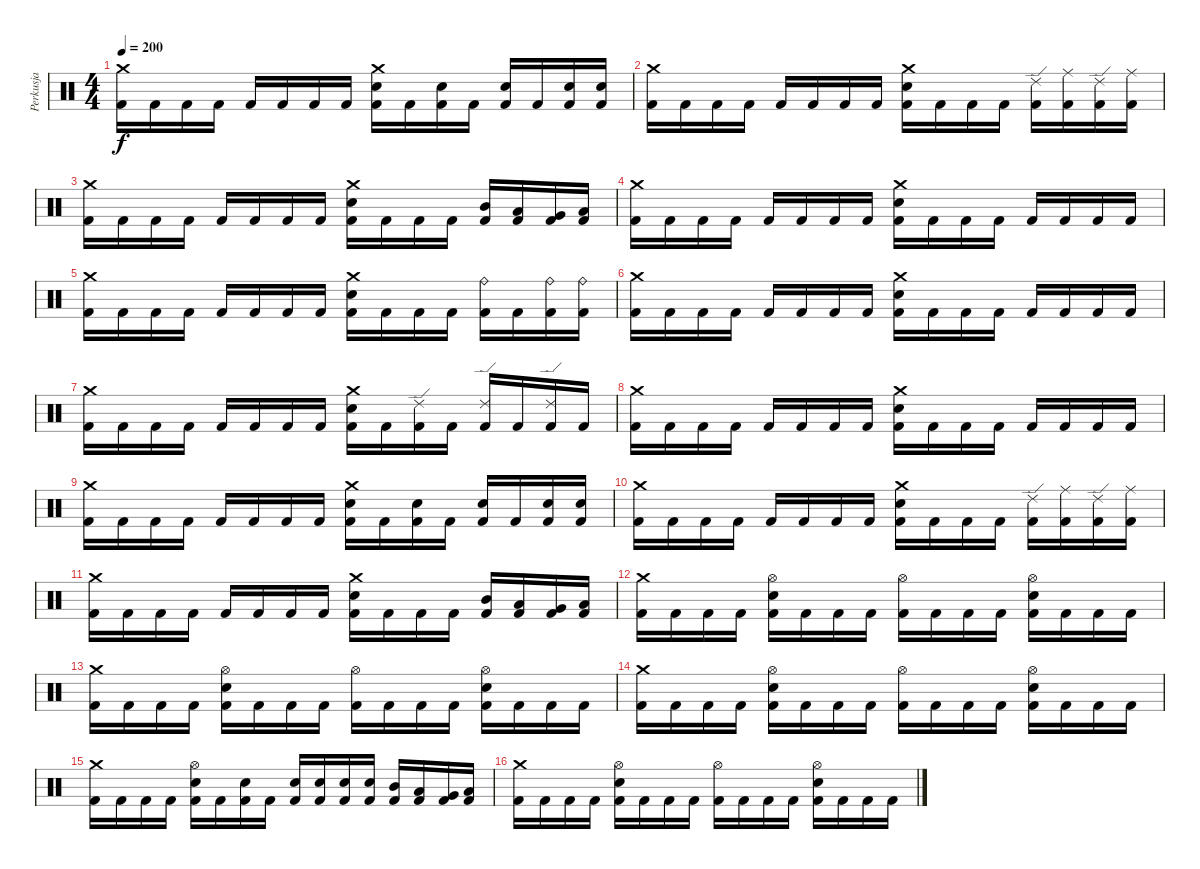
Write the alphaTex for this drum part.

\track ("Perkusja" "Perkusja") {instrument percussion}
\staff {score}
\articulation defaults
\ts (4 4)
\tempo 200
\clef neutral
\ks c
("Crash medium (hit)" "Kick (hit) 2").16{dy f} "Kick (hit) 2".16 "Kick (hit) 2".16 "Kick (hit) 2".16 "Kick (hit) 2".16 "Kick (hit) 2".16 "Kick (hit) 2".16 "Kick (hit) 2".16 ("Crash medium (hit)" "Electric Snare (hit)" "Kick (hit) 2").16 "Kick (hit) 2".16 ("Electric Snare (hit)" "Kick (hit) 2").16 "Kick (hit) 2".16 ("Electric Snare (hit)" "Kick (hit) 2").16 "Kick (hit) 2".16 ("Electric Snare (hit)" "Kick (hit) 2").16 ("Electric Snare (hit)" "Kick (hit) 2").16 |
("Crash medium (hit)" "Kick (hit) 2").16 "Kick (hit) 2".16 "Kick (hit) 2".16 "Kick (hit) 2".16 "Kick (hit) 2".16 "Kick (hit) 2".16 "Kick (hit) 2".16 "Kick (hit) 2".16 ("Crash medium (hit)" "Electric Snare (hit)" "Kick (hit) 2").16 "Kick (hit) 2".16 "Kick (hit) 2".16 "Kick (hit) 2".16 ("Ride (edge) 2" "Kick (hit) 2").16 ("Ride (middle)" "Kick (hit) 2").16 ("Ride (edge) 2" "Kick (hit) 2").16 ("Ride (middle)" "Kick (hit) 2").16 |
("Crash medium (hit)" "Kick (hit) 2").16 "Kick (hit) 2".16 "Kick (hit) 2".16 "Kick (hit) 2".16 "Kick (hit) 2".16 "Kick (hit) 2".16 "Kick (hit) 2".16 "Kick (hit) 2".16 ("Crash medium (hit)" "Electric Snare (hit)" "Kick (hit) 2").16 "Kick (hit) 2".16 "Kick (hit) 2".16 "Kick (hit) 2".16 ("Mid Tom (hit)" "Kick (hit) 2").16 ("Low Tom (hit)" "Kick (hit) 2").16 ("Very Low Tom (hit)" "Kick (hit) 2").16 ("Low Floor Tom (hit)" "Kick (hit) 2").16 |
("Crash medium (hit)" "Kick (hit) 2").16 "Kick (hit) 2".16 "Kick (hit) 2".16 "Kick (hit) 2".16 "Kick (hit) 2".16 "Kick (hit) 2".16 "Kick (hit) 2".16 "Kick (hit) 2".16 ("Crash medium (hit)" "Electric Snare (hit)" "Kick (hit) 2").16 "Kick (hit) 2".16 "Kick (hit) 2".16 "Kick (hit) 2".16 "Kick (hit) 2".16 "Kick (hit) 2".16 "Kick (hit) 2".16 "Kick (hit) 2".16 |
("Crash medium (hit)" "Kick (hit) 2").16 "Kick (hit) 2".16 "Kick (hit) 2".16 "Kick (hit) 2".16 "Kick (hit) 2".16 "Kick (hit) 2".16 "Kick (hit) 2".16 "Kick (hit) 2".16 ("Crash medium (hit)" "Electric Snare (hit)" "Kick (hit) 2").16 "Kick (hit) 2".16 "Kick (hit) 2".16 "Kick (hit) 2".16 ("Ride (bell)" "Kick (hit) 2").16 "Kick (hit) 2".16 ("Ride (bell)" "Kick (hit) 2").16 ("Ride (bell)" "Kick (hit) 2").16 |
("Crash medium (hit)" "Kick (hit) 2").16 "Kick (hit) 2".16 "Kick (hit) 2".16 "Kick (hit) 2".16 "Kick (hit) 2".16 "Kick (hit) 2".16 "Kick (hit) 2".16 "Kick (hit) 2".16 ("Crash medium (hit)" "Electric Snare (hit)" "Kick (hit) 2").16 "Kick (hit) 2".16 "Kick (hit) 2".16 "Kick (hit) 2".16 "Kick (hit) 2".16 "Kick (hit) 2".16 "Kick (hit) 2".16 "Kick (hit) 2".16 |
("Crash medium (hit)" "Kick (hit) 2").16 "Kick (hit) 2".16 "Kick (hit) 2".16 "Kick (hit) 2".16 "Kick (hit) 2".16 "Kick (hit) 2".16 "Kick (hit) 2".16 "Kick (hit) 2".16 ("Crash medium (hit)" "Electric Snare (hit)" "Kick (hit) 2").16 "Kick (hit) 2".16 ("Ride (edge) 2" "Kick (hit) 2").16 "Kick (hit) 2".16 ("Ride (edge) 2" "Kick (hit) 2").16 "Kick (hit) 2".16 ("Ride (edge) 2" "Kick (hit) 2").16 "Kick (hit) 2".16 |
("Crash medium (hit)" "Kick (hit) 2").16 "Kick (hit) 2".16 "Kick (hit) 2".16 "Kick (hit) 2".16 "Kick (hit) 2".16 "Kick (hit) 2".16 "Kick (hit) 2".16 "Kick (hit) 2".16 ("Crash medium (hit)" "Electric Snare (hit)" "Kick (hit) 2").16 "Kick (hit) 2".16 "Kick (hit) 2".16 "Kick (hit) 2".16 "Kick (hit) 2".16 "Kick (hit) 2".16 "Kick (hit) 2".16 "Kick (hit) 2".16 |
("Crash medium (hit)" "Kick (hit) 2").16 "Kick (hit) 2".16 "Kick (hit) 2".16 "Kick (hit) 2".16 "Kick (hit) 2".16 "Kick (hit) 2".16 "Kick (hit) 2".16 "Kick (hit) 2".16 ("Crash medium (hit)" "Electric Snare (hit)" "Kick (hit) 2").16 "Kick (hit) 2".16 ("Electric Snare (hit)" "Kick (hit) 2").16 "Kick (hit) 2".16 ("Electric Snare (hit)" "Kick (hit) 2").16 "Kick (hit) 2".16 ("Electric Snare (hit)" "Kick (hit) 2").16 ("Electric Snare (hit)" "Kick (hit) 2").16 |
("Crash medium (hit)" "Kick (hit) 2").16 "Kick (hit) 2".16 "Kick (hit) 2".16 "Kick (hit) 2".16 "Kick (hit) 2".16 "Kick (hit) 2".16 "Kick (hit) 2".16 "Kick (hit) 2".16 ("Crash medium (hit)" "Electric Snare (hit)" "Kick (hit) 2").16 "Kick (hit) 2".16 "Kick (hit) 2".16 "Kick (hit) 2".16 ("Ride (edge) 2" "Kick (hit) 2").16 ("Ride (middle)" "Kick (hit) 2").16 ("Ride (edge) 2" "Kick (hit) 2").16 ("Ride (middle)" "Kick (hit) 2").16 |
("Crash medium (hit)" "Kick (hit) 2").16 "Kick (hit) 2".16 "Kick (hit) 2".16 "Kick (hit) 2".16 "Kick (hit) 2".16 "Kick (hit) 2".16 "Kick (hit) 2".16 "Kick (hit) 2".16 ("Crash medium (hit)" "Electric Snare (hit)" "Kick (hit) 2").16 "Kick (hit) 2".16 "Kick (hit) 2".16 "Kick (hit) 2".16 ("Mid Tom (hit)" "Kick (hit) 2").16 ("Low Tom (hit)" "Kick (hit) 2").16 ("Very Low Tom (hit)" "Kick (hit) 2").16 ("Low Floor Tom (hit)" "Kick (hit) 2").16 |
("Crash medium (hit)" "Kick (hit) 2").16 "Kick (hit) 2".16 "Kick (hit) 2".16 "Kick (hit) 2".16 ("Hi-Hat (open)" "Electric Snare (hit)" "Kick (hit) 2").16 "Kick (hit) 2".16 "Kick (hit) 2".16 "Kick (hit) 2".16 ("Hi-Hat (open)" "Kick (hit) 2").16 "Kick (hit) 2".16 "Kick (hit) 2".16 "Kick (hit) 2".16 ("Hi-Hat (open)" "Electric Snare (hit)" "Kick (hit) 2").16 "Kick (hit) 2".16 "Kick (hit) 2".16 "Kick (hit) 2".16 |
("Crash medium (hit)" "Kick (hit) 2").16 "Kick (hit) 2".16 "Kick (hit) 2".16 "Kick (hit) 2".16 ("Hi-Hat (open)" "Electric Snare (hit)" "Kick (hit) 2").16 "Kick (hit) 2".16 "Kick (hit) 2".16 "Kick (hit) 2".16 ("Hi-Hat (open)" "Kick (hit) 2").16 "Kick (hit) 2".16 "Kick (hit) 2".16 "Kick (hit) 2".16 ("Hi-Hat (open)" "Electric Snare (hit)" "Kick (hit) 2").16 "Kick (hit) 2".16 "Kick (hit) 2".16 "Kick (hit) 2".16 |
("Crash medium (hit)" "Kick (hit) 2").16 "Kick (hit) 2".16 "Kick (hit) 2".16 "Kick (hit) 2".16 ("Hi-Hat (open)" "Electric Snare (hit)" "Kick (hit) 2").16 "Kick (hit) 2".16 "Kick (hit) 2".16 "Kick (hit) 2".16 ("Hi-Hat (open)" "Kick (hit) 2").16 "Kick (hit) 2".16 "Kick (hit) 2".16 "Kick (hit) 2".16 ("Hi-Hat (open)" "Electric Snare (hit)" "Kick (hit) 2").16 "Kick (hit) 2".16 "Kick (hit) 2".16 "Kick (hit) 2".16 |
("Crash medium (hit)" "Kick (hit) 2").16 "Kick (hit) 2".16 "Kick (hit) 2".16 "Kick (hit) 2".16 ("Hi-Hat (open)" "Electric Snare (hit)" "Kick (hit) 2").16 "Kick (hit) 2".16 ("Electric Snare (hit)" "Kick (hit) 2").16 "Kick (hit) 2".16 ("Electric Snare (hit)" "Kick (hit) 2").16 ("Electric Snare (hit)" "Kick (hit) 2").16 ("Electric Snare (hit)" "Kick (hit) 2").16 ("Electric Snare (hit)" "Kick (hit) 2").16 ("Mid Tom (hit)" "Kick (hit) 2").16 ("Low Tom (hit)" "Kick (hit) 2").16 ("Very Low Tom (hit)" "Kick (hit) 2").16 ("Low Floor Tom (hit)" "Kick (hit) 2").16 |
("Crash medium (hit)" "Kick (hit) 2").16 "Kick (hit) 2".16 "Kick (hit) 2".16 "Kick (hit) 2".16 ("Hi-Hat (open)" "Electric Snare (hit)" "Kick (hit) 2").16 "Kick (hit) 2".16 "Kick (hit) 2".16 "Kick (hit) 2".16 ("Hi-Hat (open)" "Kick (hit) 2").16 "Kick (hit) 2".16 "Kick (hit) 2".16 "Kick (hit) 2".16 ("Hi-Hat (open)" "Electric Snare (hit)" "Kick (hit) 2").16 "Kick (hit) 2".16 "Kick (hit) 2".16 "Kick (hit) 2".16
